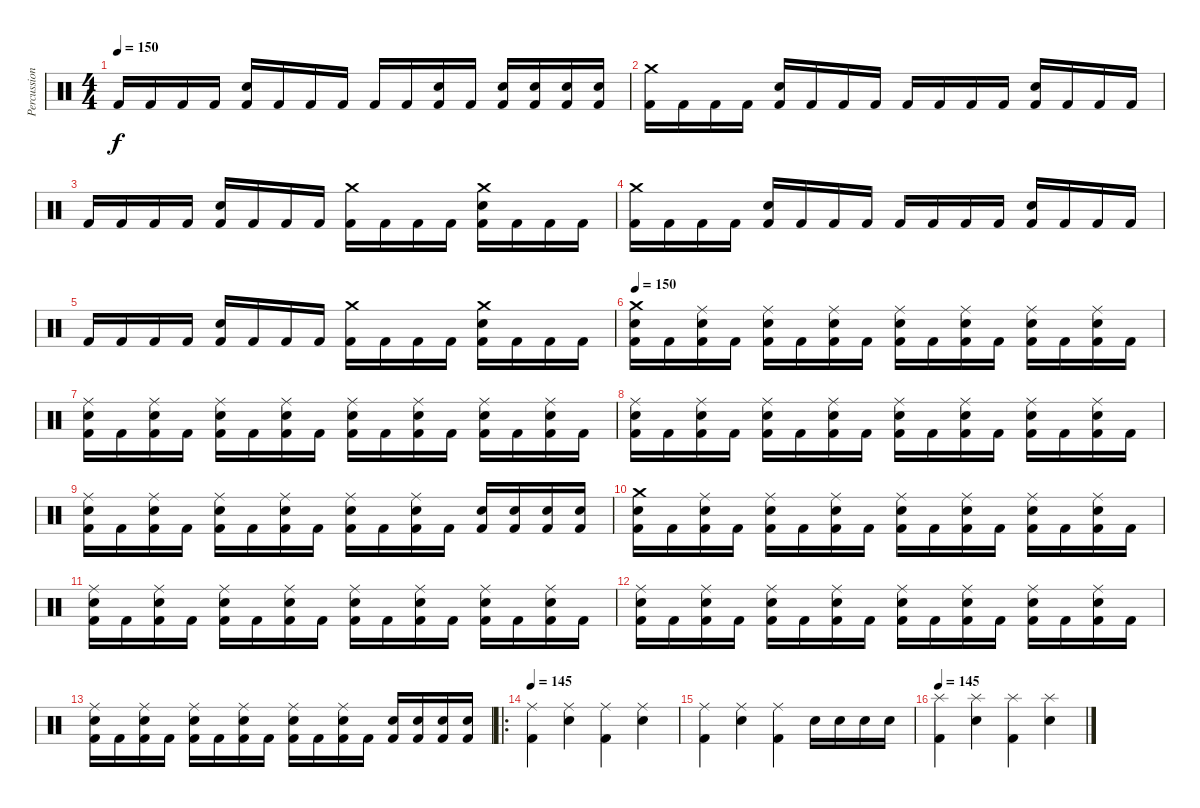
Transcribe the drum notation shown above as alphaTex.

\track ("Percussions" "Percussion") {instrument percussion}
\staff {score}
\articulation defaults
\ts (4 4)
\tempo 150
\clef neutral
\ks c "Kick (hit) 2".16{dy f} "Kick (hit) 2".16 "Kick (hit) 2".16 "Kick (hit) 2".16
("Snare (hit) 2" "Kick (hit) 2").16 "Kick (hit) 2".16 "Kick (hit) 2".16 "Kick (hit) 2".16 "Kick (hit) 2".16 "Kick (hit) 2".16 ("Snare (hit) 2" "Kick (hit) 2").16 "Kick (hit) 2".16 ("Snare (hit) 2" "Kick (hit) 2").16 ("Snare (hit) 2" "Kick (hit) 2").16 ("Snare (hit) 2" "Kick (hit) 2").16 ("Snare (hit) 2" "Kick (hit) 2").16 |
("Crash medium (hit)" "Kick (hit) 2").16 "Kick (hit) 2".16 "Kick (hit) 2".16 "Kick (hit) 2".16 ("Snare (hit) 2" "Kick (hit) 2").16 "Kick (hit) 2".16 "Kick (hit) 2".16 "Kick (hit) 2".16 "Kick (hit) 2".16 "Kick (hit) 2".16 "Kick (hit) 2".16 "Kick (hit) 2".16 ("Snare (hit) 2" "Kick (hit) 2").16 "Kick (hit) 2".16 "Kick (hit) 2".16 "Kick (hit) 2".16 |
"Kick (hit) 2".16 "Kick (hit) 2".16 "Kick (hit) 2".16 "Kick (hit) 2".16 ("Snare (hit) 2" "Kick (hit) 2").16 "Kick (hit) 2".16 "Kick (hit) 2".16 "Kick (hit) 2".16 ("Crash medium (hit)" "Kick (hit) 2").16 "Kick (hit) 2".16 "Kick (hit) 2".16 "Kick (hit) 2".16 ("Crash medium (hit)" "Snare (hit) 2" "Kick (hit) 2").16 "Kick (hit) 2".16 "Kick (hit) 2".16 "Kick (hit) 2".16 |
("Crash medium (hit)" "Kick (hit) 2").16 "Kick (hit) 2".16 "Kick (hit) 2".16 "Kick (hit) 2".16 ("Snare (hit) 2" "Kick (hit) 2").16 "Kick (hit) 2".16 "Kick (hit) 2".16 "Kick (hit) 2".16 "Kick (hit) 2".16 "Kick (hit) 2".16 "Kick (hit) 2".16 "Kick (hit) 2".16 ("Snare (hit) 2" "Kick (hit) 2").16 "Kick (hit) 2".16 "Kick (hit) 2".16 "Kick (hit) 2".16 |
"Kick (hit) 2".16 "Kick (hit) 2".16 "Kick (hit) 2".16 "Kick (hit) 2".16 ("Snare (hit) 2" "Kick (hit) 2").16 "Kick (hit) 2".16 "Kick (hit) 2".16 "Kick (hit) 2".16 ("Crash medium (hit)" "Kick (hit) 2").16 "Kick (hit) 2".16 "Kick (hit) 2".16 "Kick (hit) 2".16 ("Crash medium (hit)" "Snare (hit) 2" "Kick (hit) 2").16 "Kick (hit) 2".16 "Kick (hit) 2".16 "Kick (hit) 2".16 |
\tempo 150
("Crash medium (hit)" "Snare (hit) 2" "Kick (hit) 2").16 "Kick (hit) 2".16 ("Ride (middle)" "Snare (hit) 2" "Kick (hit) 2").16 "Kick (hit) 2".16 ("Ride (middle)" "Snare (hit) 2" "Kick (hit) 2").16 "Kick (hit) 2".16 ("Ride (middle)" "Snare (hit) 2" "Kick (hit) 2").16 "Kick (hit) 2".16 ("Ride (middle)" "Snare (hit) 2" "Kick (hit) 2").16 "Kick (hit) 2".16 ("Ride (middle)" "Snare (hit) 2" "Kick (hit) 2").16 "Kick (hit) 2".16 ("Ride (middle)" "Snare (hit) 2" "Kick (hit) 2").16 "Kick (hit) 2".16 ("Ride (middle)" "Snare (hit) 2" "Kick (hit) 2").16 "Kick (hit) 2".16 |
("Ride (middle)" "Snare (hit) 2" "Kick (hit) 2").16 "Kick (hit) 2".16 ("Ride (middle)" "Snare (hit) 2" "Kick (hit) 2").16 "Kick (hit) 2".16 ("Ride (middle)" "Snare (hit) 2" "Kick (hit) 2").16 "Kick (hit) 2".16 ("Ride (middle)" "Snare (hit) 2" "Kick (hit) 2").16 "Kick (hit) 2".16 ("Ride (middle)" "Snare (hit) 2" "Kick (hit) 2").16 "Kick (hit) 2".16 ("Ride (middle)" "Snare (hit) 2" "Kick (hit) 2").16 "Kick (hit) 2".16 ("Ride (middle)" "Snare (hit) 2" "Kick (hit) 2").16 "Kick (hit) 2".16 ("Ride (middle)" "Snare (hit) 2" "Kick (hit) 2").16 "Kick (hit) 2".16 |
("Ride (middle)" "Snare (hit) 2" "Kick (hit) 2").16 "Kick (hit) 2".16 ("Ride (middle)" "Snare (hit) 2" "Kick (hit) 2").16 "Kick (hit) 2".16 ("Ride (middle)" "Snare (hit) 2" "Kick (hit) 2").16 "Kick (hit) 2".16 ("Ride (middle)" "Snare (hit) 2" "Kick (hit) 2").16 "Kick (hit) 2".16 ("Ride (middle)" "Snare (hit) 2" "Kick (hit) 2").16 "Kick (hit) 2".16 ("Ride (middle)" "Snare (hit) 2" "Kick (hit) 2").16 "Kick (hit) 2".16 ("Ride (middle)" "Snare (hit) 2" "Kick (hit) 2").16 "Kick (hit) 2".16 ("Ride (middle)" "Snare (hit) 2" "Kick (hit) 2").16 "Kick (hit) 2".16 |
("Ride (middle)" "Snare (hit) 2" "Kick (hit) 2").16 "Kick (hit) 2".16 ("Ride (middle)" "Snare (hit) 2" "Kick (hit) 2").16 "Kick (hit) 2".16 ("Ride (middle)" "Snare (hit) 2" "Kick (hit) 2").16 "Kick (hit) 2".16 ("Ride (middle)" "Snare (hit) 2" "Kick (hit) 2").16 "Kick (hit) 2".16 ("Ride (middle)" "Snare (hit) 2" "Kick (hit) 2").16 "Kick (hit) 2".16 ("Ride (middle)" "Snare (hit) 2" "Kick (hit) 2").16 "Kick (hit) 2".16 ("Snare (hit) 2" "Kick (hit) 2").16 ("Snare (hit) 2" "Kick (hit) 2").16 ("Snare (hit) 2" "Kick (hit) 2").16 ("Snare (hit) 2" "Kick (hit) 2").16 |
("Crash medium (hit)" "Snare (hit) 2" "Kick (hit) 2").16 "Kick (hit) 2".16 ("Ride (middle)" "Snare (hit) 2" "Kick (hit) 2").16 "Kick (hit) 2".16 ("Ride (middle)" "Snare (hit) 2" "Kick (hit) 2").16 "Kick (hit) 2".16 ("Ride (middle)" "Snare (hit) 2" "Kick (hit) 2").16 "Kick (hit) 2".16 ("Ride (middle)" "Snare (hit) 2" "Kick (hit) 2").16 "Kick (hit) 2".16 ("Ride (middle)" "Snare (hit) 2" "Kick (hit) 2").16 "Kick (hit) 2".16 ("Ride (middle)" "Snare (hit) 2" "Kick (hit) 2").16 "Kick (hit) 2".16 ("Ride (middle)" "Snare (hit) 2" "Kick (hit) 2").16 "Kick (hit) 2".16 |
("Ride (middle)" "Snare (hit) 2" "Kick (hit) 2").16 "Kick (hit) 2".16 ("Ride (middle)" "Snare (hit) 2" "Kick (hit) 2").16 "Kick (hit) 2".16 ("Ride (middle)" "Snare (hit) 2" "Kick (hit) 2").16 "Kick (hit) 2".16 ("Ride (middle)" "Snare (hit) 2" "Kick (hit) 2").16 "Kick (hit) 2".16 ("Ride (middle)" "Snare (hit) 2" "Kick (hit) 2").16 "Kick (hit) 2".16 ("Ride (middle)" "Snare (hit) 2" "Kick (hit) 2").16 "Kick (hit) 2".16 ("Ride (middle)" "Snare (hit) 2" "Kick (hit) 2").16 "Kick (hit) 2".16 ("Ride (middle)" "Snare (hit) 2" "Kick (hit) 2").16 "Kick (hit) 2".16 |
("Ride (middle)" "Snare (hit) 2" "Kick (hit) 2").16 "Kick (hit) 2".16 ("Ride (middle)" "Snare (hit) 2" "Kick (hit) 2").16 "Kick (hit) 2".16 ("Ride (middle)" "Snare (hit) 2" "Kick (hit) 2").16 "Kick (hit) 2".16 ("Ride (middle)" "Snare (hit) 2" "Kick (hit) 2").16 "Kick (hit) 2".16 ("Ride (middle)" "Snare (hit) 2" "Kick (hit) 2").16 "Kick (hit) 2".16 ("Ride (middle)" "Snare (hit) 2" "Kick (hit) 2").16 "Kick (hit) 2".16 ("Ride (middle)" "Snare (hit) 2" "Kick (hit) 2").16 "Kick (hit) 2".16 ("Ride (middle)" "Snare (hit) 2" "Kick (hit) 2").16 "Kick (hit) 2".16 |
("Ride (middle)" "Snare (hit) 2" "Kick (hit) 2").16 "Kick (hit) 2".16 ("Ride (middle)" "Snare (hit) 2" "Kick (hit) 2").16 "Kick (hit) 2".16 ("Ride (middle)" "Snare (hit) 2" "Kick (hit) 2").16 "Kick (hit) 2".16 ("Ride (middle)" "Snare (hit) 2" "Kick (hit) 2").16 "Kick (hit) 2".16 ("Ride (middle)" "Snare (hit) 2" "Kick (hit) 2").16 "Kick (hit) 2".16 ("Ride (middle)" "Snare (hit) 2" "Kick (hit) 2").16 "Kick (hit) 2".16 ("Snare (hit) 2" "Kick (hit) 2").16 ("Snare (hit) 2" "Kick (hit) 2").16 ("Snare (hit) 2" "Kick (hit) 2").16 ("Snare (hit) 2" "Kick (hit) 2").16 |
\ro
\tempo 145
("Ride (middle)" "Kick (hit) 2").4 ("Ride (middle)" "Snare (hit) 2").4 ("Ride (middle)" "Kick (hit) 2").4 ("Ride (middle)" "Snare (hit) 2").4 |
("Ride (middle)" "Kick (hit) 2").4 ("Ride (middle)" "Snare (hit) 2").4 ("Ride (middle)" "Kick (hit) 2").4 "Snare (hit) 2".16 "Snare (hit) 2".16 "Snare (hit) 2".16 "Snare (hit) 2".16 |
\tempo 145
("Splash (hit)" "Kick (hit) 2").4 ("Splash (hit)" "Snare (hit) 2").4 ("Splash (hit)" "Kick (hit) 2").4 ("Splash (hit)" "Snare (hit) 2").4
